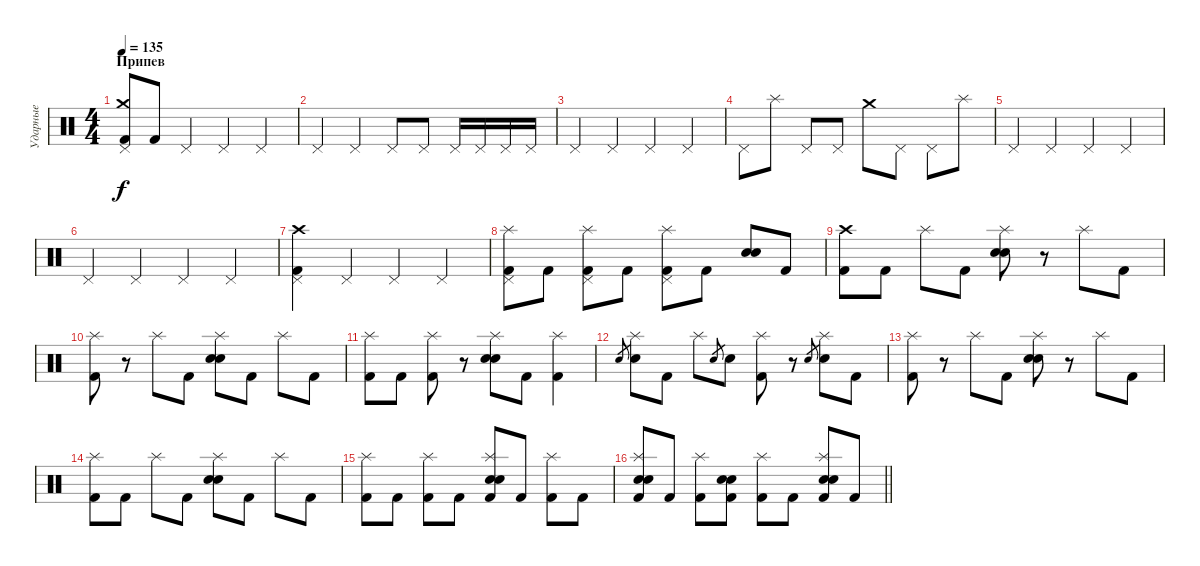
\track ("Ударные" "Ударные") {instrument percussion}
\staff {score}
\articulation defaults
\ts (4 4)
\section ("" "Припев")
\tempo 135
\clef neutral
\ks c
("Pedal Hi-Hat (hit)" "Crash medium (hit)" "Kick (hit) 2").8{dy f} "Kick (hit) 2".8 "Pedal Hi-Hat (hit)".4 "Pedal Hi-Hat (hit)".4 "Pedal Hi-Hat (hit)".4 |
"Pedal Hi-Hat (hit)".4 "Pedal Hi-Hat (hit)".4 "Pedal Hi-Hat (hit)".8 "Pedal Hi-Hat (hit)".8 "Pedal Hi-Hat (hit)".16 "Pedal Hi-Hat (hit)".16 "Pedal Hi-Hat (hit)".16 "Pedal Hi-Hat (hit)".16 |
"Pedal Hi-Hat (hit)".4 "Pedal Hi-Hat (hit)".4 "Pedal Hi-Hat (hit)".4 "Pedal Hi-Hat (hit)".4 |
"Pedal Hi-Hat (hit)".8 "Splash (hit)".8 "Pedal Hi-Hat (hit)".8 "Pedal Hi-Hat (hit)".8 "Crash medium (hit)".8 "Pedal Hi-Hat (hit)".8 "Pedal Hi-Hat (hit)".8 "Splash (hit)".8 |
"Pedal Hi-Hat (hit)".4 "Pedal Hi-Hat (hit)".4 "Pedal Hi-Hat (hit)".4 "Pedal Hi-Hat (hit)".4 |
"Pedal Hi-Hat (hit)".4 "Pedal Hi-Hat (hit)".4 "Pedal Hi-Hat (hit)".4 "Pedal Hi-Hat (hit)".4 |
("Pedal Hi-Hat (hit)" "Crash high (hit)" "Kick (hit) 2").4 "Pedal Hi-Hat (hit)".4 "Pedal Hi-Hat (hit)".4 "Pedal Hi-Hat (hit)".4 |
("Splash (hit)" "Pedal Hi-Hat (hit)" "Kick (hit) 2").8 "Kick (hit) 2".8 ("Splash (hit)" "Pedal Hi-Hat (hit)" "Kick (hit) 2").8 "Kick (hit) 2".8 ("Splash (hit)" "Pedal Hi-Hat (hit)" "Kick (hit) 2").8 "Kick (hit) 2".8 ("Electric Snare (hit)" "Snare (hit) 2").8 "Kick (hit) 2".8 |
("Crash high (hit)" "Kick (hit) 2").8 "Kick (hit) 2".8 "Splash (hit)".8 "Kick (hit) 2".8 ("Splash (hit)" "Electric Snare (hit)" "Snare (hit) 2").8 r.8 "Splash (hit)".8 "Kick (hit) 2".8 |
("Splash (hit)" "Kick (hit) 2").8 r.8 "Splash (hit)".8 "Kick (hit) 2".8 ("Splash (hit)" "Electric Snare (hit)" "Snare (hit) 2").8 "Kick (hit) 2".8 "Splash (hit)".8 "Kick (hit) 2".8 |
("Splash (hit)" "Kick (hit) 2").8 "Kick (hit) 2".8 ("Splash (hit)" "Kick (hit) 2").8 r.8 ("Splash (hit)" "Electric Snare (hit)" "Snare (hit) 2").8 "Kick (hit) 2".8 ("Splash (hit)" "Kick (hit) 2").4 |
"Electric Snare (hit)".8{gr} ("Splash (hit)" "Electric Snare (hit)").8 "Kick (hit) 2".8 "Splash (hit)".8 "Electric Snare (hit)".8{gr} "Electric Snare (hit)".8 ("Splash (hit)" "Kick (hit) 2").8 r.8 "Electric Snare (hit)".8{gr} ("Splash (hit)" "Electric Snare (hit)").8 "Kick (hit) 2".8 |
("Splash (hit)" "Kick (hit) 2").8 r.8 "Splash (hit)".8 "Kick (hit) 2".8 ("Splash (hit)" "Electric Snare (hit)" "Snare (hit) 2").8 r.8 "Splash (hit)".8 "Kick (hit) 2".8 |
("Splash (hit)" "Kick (hit) 2").8 "Kick (hit) 2".8 "Splash (hit)".8 "Kick (hit) 2".8 ("Splash (hit)" "Electric Snare (hit)" "Snare (hit) 2").8 "Kick (hit) 2".8 "Splash (hit)".8 "Kick (hit) 2".8 |
("Splash (hit)" "Kick (hit) 2").8 "Kick (hit) 2".8 ("Splash (hit)" "Kick (hit) 2").8 "Kick (hit) 2".8 ("Splash (hit)" "Electric Snare (hit)" "Snare (hit) 2" "Kick (hit) 2").8 "Kick (hit) 2".8 ("Splash (hit)" "Kick (hit) 2").8 "Kick (hit) 2".8 |
\barLineRight lightlight
("Splash (hit)" "Electric Snare (hit)" "Snare (hit) 2" "Kick (hit) 2").8 "Kick (hit) 2".8 ("Splash (hit)" "Kick (hit) 2").8 ("Electric Snare (hit)" "Snare (hit) 2" "Kick (hit) 2").8 ("Splash (hit)" "Kick (hit) 2").8 "Kick (hit) 2".8 ("Splash (hit)" "Electric Snare (hit)" "Snare (hit) 2" "Kick (hit) 2").8 "Kick (hit) 2".8
